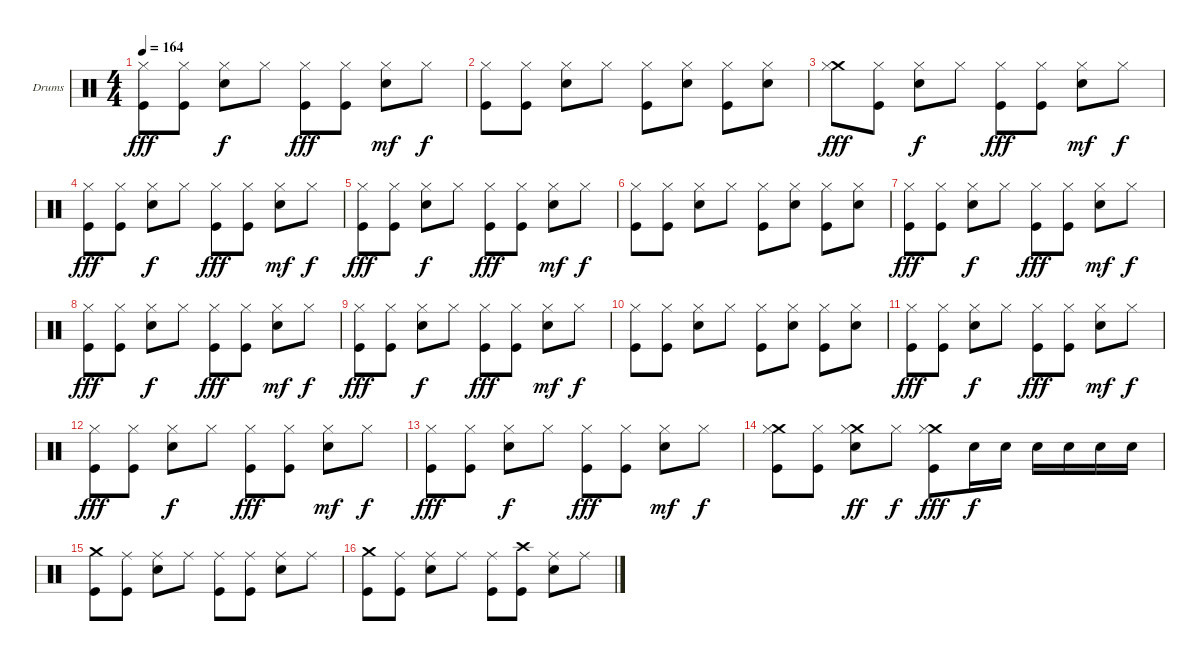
\defaultSystemsLayout 4
\bracketExtendMode nobrackets
\firstSystemTrackNameOrientation horizontal
\otherSystemsTrackNameOrientation horizontal
\track ("Dave Abbruzzese" "Drums") {solo instrument percussion}
\staff {score}
\articulation defaults
\ts (4 4)
\tempo 164
\clef neutral
\ks c
("Kick (hit)" "Hi-Hat (closed)").8{dy fff} ("Kick (hit)" "Hi-Hat (closed)").8 ("Snare (hit) 2" "Hi-Hat (closed)").8{dy f} "Hi-Hat (closed)".8 ("Kick (hit)" "Hi-Hat (closed)").8{dy fff} ("Kick (hit)" "Hi-Hat (closed)").8 ("Snare (hit) 2" "Hi-Hat (closed)").8{dy mf} "Hi-Hat (closed)".8{dy f} |
("Kick (hit)" "Hi-Hat (closed)").8 ("Kick (hit)" "Hi-Hat (closed)").8 ("Snare (hit) 2" "Hi-Hat (closed)").8 "Hi-Hat (closed)".8 ("Kick (hit)" "Hi-Hat (closed)").8 ("Snare (hit) 2" "Hi-Hat (closed)").8 ("Kick (hit)" "Hi-Hat (closed)").8 ("Snare (hit) 2" "Hi-Hat (closed)").8 |
("Crash medium (hit)" "Hi-Hat (closed)").8{dy fff} ("Kick (hit)" "Hi-Hat (closed)").8 ("Snare (hit) 2" "Hi-Hat (closed)").8{dy f} "Hi-Hat (closed)".8 ("Kick (hit)" "Hi-Hat (closed)").8{dy fff} ("Kick (hit)" "Hi-Hat (closed)").8 ("Snare (hit) 2" "Hi-Hat (closed)").8{dy mf} "Hi-Hat (closed)".8{dy f} |
("Kick (hit)" "Hi-Hat (closed)").8{dy fff} ("Kick (hit)" "Hi-Hat (closed)").8 ("Snare (hit) 2" "Hi-Hat (closed)").8{dy f} "Hi-Hat (closed)".8 ("Kick (hit)" "Hi-Hat (closed)").8{dy fff} ("Kick (hit)" "Hi-Hat (closed)").8 ("Snare (hit) 2" "Hi-Hat (closed)").8{dy mf} "Hi-Hat (closed)".8{dy f} |
("Kick (hit)" "Hi-Hat (closed)").8{dy fff} ("Kick (hit)" "Hi-Hat (closed)").8 ("Snare (hit) 2" "Hi-Hat (closed)").8{dy f} "Hi-Hat (closed)".8 ("Kick (hit)" "Hi-Hat (closed)").8{dy fff} ("Kick (hit)" "Hi-Hat (closed)").8 ("Snare (hit) 2" "Hi-Hat (closed)").8{dy mf} "Hi-Hat (closed)".8{dy f} |
("Kick (hit)" "Hi-Hat (closed)").8 ("Kick (hit)" "Hi-Hat (closed)").8 ("Snare (hit) 2" "Hi-Hat (closed)").8 "Hi-Hat (closed)".8 ("Kick (hit)" "Hi-Hat (closed)").8 ("Snare (hit) 2" "Hi-Hat (closed)").8 ("Kick (hit)" "Hi-Hat (closed)").8 ("Snare (hit) 2" "Hi-Hat (closed)").8 |
("Kick (hit)" "Hi-Hat (closed)").8{dy fff} ("Kick (hit)" "Hi-Hat (closed)").8 ("Snare (hit) 2" "Hi-Hat (closed)").8{dy f} "Hi-Hat (closed)".8 ("Kick (hit)" "Hi-Hat (closed)").8{dy fff} ("Kick (hit)" "Hi-Hat (closed)").8 ("Snare (hit) 2" "Hi-Hat (closed)").8{dy mf} "Hi-Hat (closed)".8{dy f} |
("Kick (hit)" "Hi-Hat (closed)").8{dy fff} ("Kick (hit)" "Hi-Hat (closed)").8 ("Snare (hit) 2" "Hi-Hat (closed)").8{dy f} "Hi-Hat (closed)".8 ("Kick (hit)" "Hi-Hat (closed)").8{dy fff} ("Kick (hit)" "Hi-Hat (closed)").8 ("Snare (hit) 2" "Hi-Hat (closed)").8{dy mf} "Hi-Hat (closed)".8{dy f} |
("Kick (hit)" "Hi-Hat (closed)").8{dy fff} ("Kick (hit)" "Hi-Hat (closed)").8 ("Snare (hit) 2" "Hi-Hat (closed)").8{dy f} "Hi-Hat (closed)".8 ("Kick (hit)" "Hi-Hat (closed)").8{dy fff} ("Kick (hit)" "Hi-Hat (closed)").8 ("Snare (hit) 2" "Hi-Hat (closed)").8{dy mf} "Hi-Hat (closed)".8{dy f} |
("Kick (hit)" "Hi-Hat (closed)").8 ("Kick (hit)" "Hi-Hat (closed)").8 ("Snare (hit) 2" "Hi-Hat (closed)").8 "Hi-Hat (closed)".8 ("Kick (hit)" "Hi-Hat (closed)").8 ("Snare (hit) 2" "Hi-Hat (closed)").8 ("Kick (hit)" "Hi-Hat (closed)").8 ("Snare (hit) 2" "Hi-Hat (closed)").8 |
("Kick (hit)" "Hi-Hat (closed)").8{dy fff} ("Kick (hit)" "Hi-Hat (closed)").8 ("Snare (hit) 2" "Hi-Hat (closed)").8{dy f} "Hi-Hat (closed)".8 ("Kick (hit)" "Hi-Hat (closed)").8{dy fff} ("Kick (hit)" "Hi-Hat (closed)").8 ("Snare (hit) 2" "Hi-Hat (closed)").8{dy mf} "Hi-Hat (closed)".8{dy f} |
("Kick (hit)" "Hi-Hat (closed)").8{dy fff} ("Kick (hit)" "Hi-Hat (closed)").8 ("Snare (hit) 2" "Hi-Hat (closed)").8{dy f} "Hi-Hat (closed)".8 ("Kick (hit)" "Hi-Hat (closed)").8{dy fff} ("Kick (hit)" "Hi-Hat (closed)").8 ("Snare (hit) 2" "Hi-Hat (closed)").8{dy mf} "Hi-Hat (closed)".8{dy f} |
("Kick (hit)" "Hi-Hat (closed)").8{dy fff} ("Kick (hit)" "Hi-Hat (closed)").8 ("Snare (hit) 2" "Hi-Hat (closed)").8{dy f} "Hi-Hat (closed)".8 ("Kick (hit)" "Hi-Hat (closed)").8{dy fff} ("Kick (hit)" "Hi-Hat (closed)").8 ("Snare (hit) 2" "Hi-Hat (closed)").8{dy mf} "Hi-Hat (closed)".8{dy f} |
("Crash medium (hit)" "Kick (hit)" "Hi-Hat (closed)").8 ("Kick (hit)" "Hi-Hat (closed)").8 ("Crash medium (hit)" "Snare (hit) 2" "Hi-Hat (closed)").8{dy ff} "Hi-Hat (closed)".8{dy f} ("Crash medium (hit)" "Kick (hit)" "Hi-Hat (closed)").8{dy fff} "Snare (hit) 2".16{dy f} "Snare (hit) 2".16 "Snare (hit) 2".16 "Snare (hit) 2".16 "Snare (hit) 2".16 "Snare (hit) 2".16 |
("Kick (hit)" "Crash medium (hit)").8 ("Kick (hit)" "Ride (middle)").8 ("Snare (hit) 2" "Ride (middle)").8 "Ride (middle)".8 ("Kick (hit)" "Ride (middle)").8 ("Kick (hit)" "Ride (middle)").8 ("Snare (hit) 2" "Ride (middle)").8 "Ride (middle)".8 |
("Kick (hit)" "Crash medium (hit)").8 ("Kick (hit)" "Ride (middle)").8 ("Snare (hit) 2" "Ride (middle)").8 "Ride (middle)".8 ("Kick (hit)" "Ride (middle)").8 ("Kick (hit)" "Crash high (hit)").8 ("Snare (hit) 2" "Ride (middle)").8 "Ride (middle)".8
